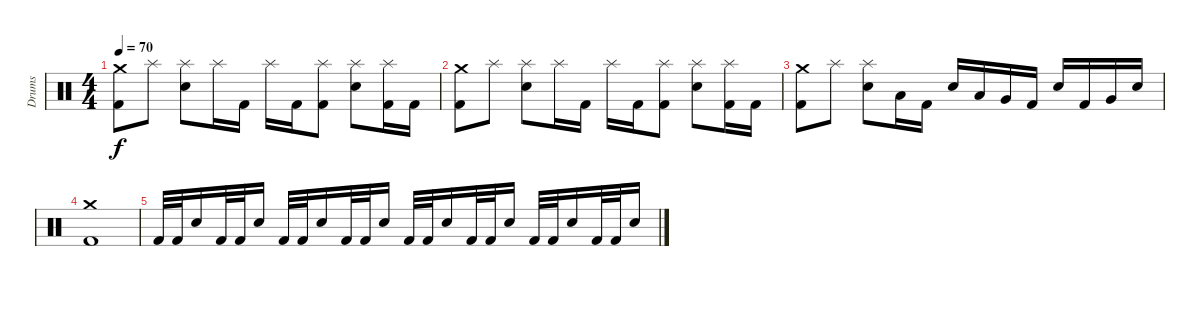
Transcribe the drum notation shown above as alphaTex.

\track ("Drums" "Drums") {instrument percussion}
\staff {score}
\articulation defaults
\ts (4 4)
\tempo 70
\clef neutral
\ks c
("Crash medium (hit)" "Kick (hit) 2").8{dy f} "Splash (hit)".8 ("Splash (hit)" "Electric Snare (hit)").8 "Splash (hit)".16 "Kick (hit) 2".16 "Splash (hit)".16 "Kick (hit) 2".16 ("Splash (hit)" "Kick (hit) 2").8 ("Splash (hit)" "Electric Snare (hit)").8 ("Splash (hit)" "Kick (hit) 2").16 "Kick (hit) 2".16 |
("Crash medium (hit)" "Kick (hit) 2").8 "Splash (hit)".8 ("Splash (hit)" "Electric Snare (hit)").8 "Splash (hit)".16 "Kick (hit) 2".16 "Splash (hit)".16 "Kick (hit) 2".16 ("Splash (hit)" "Kick (hit) 2").8 ("Splash (hit)" "Electric Snare (hit)").8 ("Splash (hit)" "Kick (hit) 2").16 "Kick (hit) 2".16 |
("Crash medium (hit)" "Kick (hit) 2").8 "Splash (hit)".8 ("Splash (hit)" "Electric Snare (hit)").8 "Low Tom (hit)".16 "Kick (hit) 2".16 "Electric Snare (hit)".16 "Low Tom (hit)".16 "Very Low Tom (hit)".16 "Kick (hit) 2".16 "Electric Snare (hit)".16 "Kick (hit) 2".16 "Very Low Tom (hit)".16 "Electric Snare (hit)".16 |
("Crash medium (hit)" "Kick (hit) 2").1{volume 0} |
"Kick (hit) 2".32 "Kick (hit) 2".32 "Electric Snare (hit)".16 "Kick (hit) 2".32 "Kick (hit) 2".32 "Electric Snare (hit)".16 "Kick (hit) 2".32 "Kick (hit) 2".32 "Electric Snare (hit)".16 "Kick (hit) 2".32 "Kick (hit) 2".32 "Electric Snare (hit)".16 "Kick (hit) 2".32 "Kick (hit) 2".32 "Electric Snare (hit)".16 "Kick (hit) 2".32 "Kick (hit) 2".32 "Electric Snare (hit)".16 "Kick (hit) 2".32 "Kick (hit) 2".32 "Electric Snare (hit)".16 "Kick (hit) 2".32 "Kick (hit) 2".32 "Electric Snare (hit)".16
